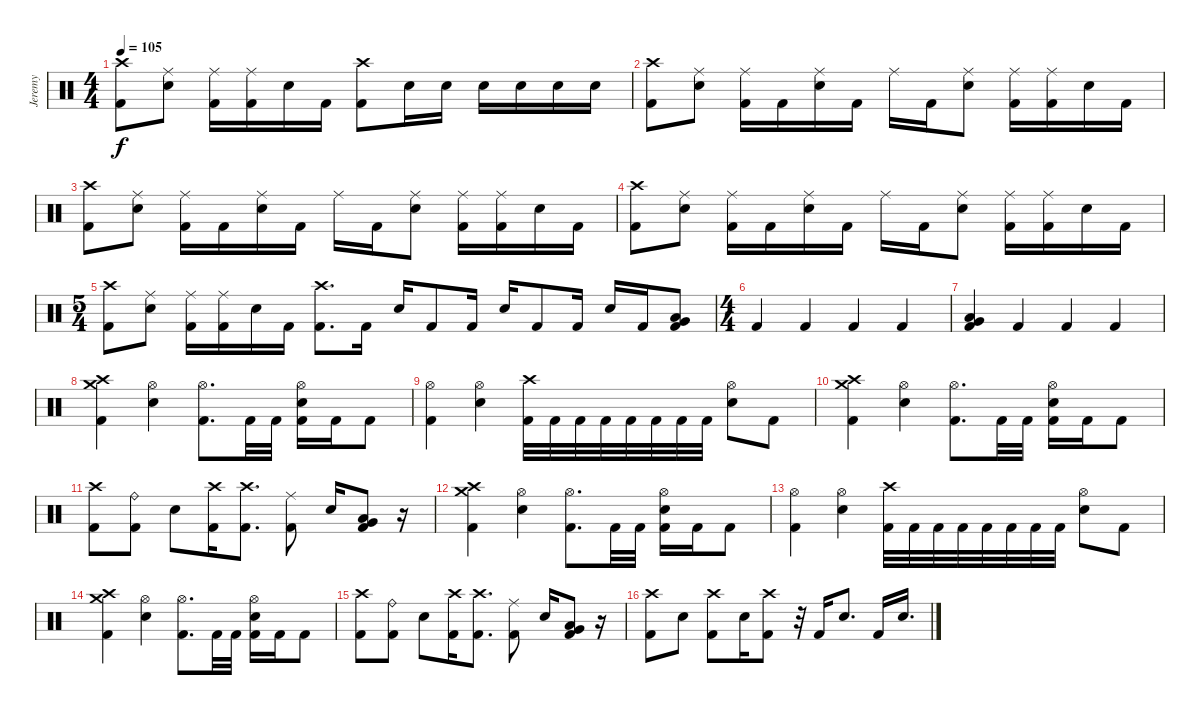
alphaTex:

\track ("Jeremy" "Jeremy") {instrument percussion}
\staff {score}
\articulation defaults
\ts (4 4)
\tempo 105
\clef neutral
\ks c
("Crash high (hit)" "Kick (hit) 2").8{dy f} ("Ride (middle)" "Snare (hit) 2").8 ("Ride (middle)" "Kick (hit) 2").16 ("Ride (middle)" "Kick (hit) 2").16 "Snare (hit) 2".16 "Kick (hit) 2".16 ("Crash high (hit)" "Kick (hit) 2").8 "Snare (hit) 2".16 "Snare (hit) 2".16 "Snare (hit) 2".16 "Snare (hit) 2".16 "Snare (hit) 2".16 "Snare (hit) 2".16 |
("Crash high (hit)" "Kick (hit) 2").8 ("Ride (middle)" "Snare (hit) 2").8 ("Ride (middle)" "Kick (hit) 2").16 "Kick (hit) 2".16 ("Ride (middle)" "Snare (hit) 2").16 "Kick (hit) 2".16 "Ride (middle)".16 "Kick (hit) 2".16 ("Ride (middle)" "Snare (hit) 2").8 ("Ride (middle)" "Kick (hit) 2").16 ("Ride (middle)" "Kick (hit) 2").16 "Snare (hit) 2".16 "Kick (hit) 2".16 |
("Crash high (hit)" "Kick (hit) 2").8 ("Ride (middle)" "Snare (hit) 2").8 ("Ride (middle)" "Kick (hit) 2").16 "Kick (hit) 2".16 ("Ride (middle)" "Snare (hit) 2").16 "Kick (hit) 2".16 "Ride (middle)".16 "Kick (hit) 2".16 ("Ride (middle)" "Snare (hit) 2").8 ("Ride (middle)" "Kick (hit) 2").16 ("Ride (middle)" "Kick (hit) 2").16 "Snare (hit) 2".16 "Kick (hit) 2".16 |
("Crash high (hit)" "Kick (hit) 2").8 ("Ride (middle)" "Snare (hit) 2").8 ("Ride (middle)" "Kick (hit) 2").16 "Kick (hit) 2".16 ("Ride (middle)" "Snare (hit) 2").16 "Kick (hit) 2".16 "Ride (middle)".16 "Kick (hit) 2".16 ("Ride (middle)" "Snare (hit) 2").8 ("Ride (middle)" "Kick (hit) 2").16 ("Ride (middle)" "Kick (hit) 2").16 "Snare (hit) 2".16 "Kick (hit) 2".16 |
\ts (5 4)
("Crash high (hit)" "Kick (hit) 2").8 ("Ride (middle)" "Snare (hit) 2").8 ("Ride (middle)" "Kick (hit) 2").16 ("Ride (middle)" "Kick (hit) 2").16 "Snare (hit) 2".16 "Kick (hit) 2".16 ("Crash high (hit)" "Kick (hit) 2").8{d} "Kick (hit) 2".16 "Snare (hit) 2".16 "Kick (hit) 2".8 "Kick (hit) 2".16 "Snare (hit) 2".16 "Kick (hit) 2".8 "Kick (hit) 2".16 "Snare (hit) 2".16 "Kick (hit) 2".16 ("Very Low Tom (hit)" "Low Floor Tom (hit)" "Kick (hit) 2").8 |
\ts (4 4)
"Kick (hit) 2".4 "Kick (hit) 2".4 "Kick (hit) 2".4 "Kick (hit) 2".4 |
("Low Floor Tom (hit)" "Very Low Tom (hit)" "Kick (hit) 2").4 "Kick (hit) 2".4 "Kick (hit) 2".4 "Kick (hit) 2".4 |
("Crash high (hit)" "Crash medium (hit)" "Kick (hit) 2").4 ("Hi-Hat (open)" "Snare (hit) 2").4 ("Hi-Hat (open)" "Kick (hit) 2").8{d} "Kick (hit) 2".32 "Kick (hit) 2".32 ("Hi-Hat (open)" "Snare (hit) 2" "Kick (hit) 2").16 "Kick (hit) 2".16 "Kick (hit) 2".8 |
("Hi-Hat (open)" "Kick (hit) 2").4 ("Hi-Hat (open)" "Snare (hit) 2").4 ("Crash high (hit)" "Kick (hit) 2").32 "Kick (hit) 2".32 "Kick (hit) 2".32 "Kick (hit) 2".32 "Kick (hit) 2".32 "Kick (hit) 2".32 "Kick (hit) 2".32 "Kick (hit) 2".32 ("Hi-Hat (open)" "Snare (hit) 2").8 "Kick (hit) 2".8 |
("Crash high (hit)" "Crash medium (hit)" "Kick (hit) 2").4 ("Hi-Hat (open)" "Snare (hit) 2").4 ("Hi-Hat (open)" "Kick (hit) 2").8{d} "Kick (hit) 2".32 "Kick (hit) 2".32 ("Hi-Hat (open)" "Snare (hit) 2" "Kick (hit) 2").16 "Kick (hit) 2".16 "Kick (hit) 2".8 |
("Crash high (hit)" "Kick (hit) 2").8 ("Ride (bell)" "Kick (hit) 2").8 "Snare (hit) 2".8 ("Crash high (hit)" "Kick (hit) 2").16 ("Crash high (hit)" "Kick (hit) 2").8{d} ("Ride (middle)" "Kick (hit) 2").8 "Snare (hit) 2".16 ("Very Low Tom (hit)" "Low Tom (hit)" "Kick (hit) 2").8 r.16 |
("Crash high (hit)" "Crash medium (hit)" "Kick (hit) 2").4 ("Hi-Hat (open)" "Snare (hit) 2").4 ("Hi-Hat (open)" "Kick (hit) 2").8{d} "Kick (hit) 2".32 "Kick (hit) 2".32 ("Hi-Hat (open)" "Snare (hit) 2" "Kick (hit) 2").16 "Kick (hit) 2".16 "Kick (hit) 2".8 |
("Hi-Hat (open)" "Kick (hit) 2").4 ("Hi-Hat (open)" "Snare (hit) 2").4 ("Crash high (hit)" "Kick (hit) 2").32 "Kick (hit) 2".32 "Kick (hit) 2".32 "Kick (hit) 2".32 "Kick (hit) 2".32 "Kick (hit) 2".32 "Kick (hit) 2".32 "Kick (hit) 2".32 ("Hi-Hat (open)" "Snare (hit) 2").8 "Kick (hit) 2".8 |
("Crash high (hit)" "Crash medium (hit)" "Kick (hit) 2").4 ("Hi-Hat (open)" "Snare (hit) 2").4 ("Hi-Hat (open)" "Kick (hit) 2").8{d} "Kick (hit) 2".32 "Kick (hit) 2".32 ("Hi-Hat (open)" "Snare (hit) 2" "Kick (hit) 2").16 "Kick (hit) 2".16 "Kick (hit) 2".8 |
("Crash high (hit)" "Kick (hit) 2").8 ("Ride (bell)" "Kick (hit) 2").8 "Snare (hit) 2".8 ("Crash high (hit)" "Kick (hit) 2").16 ("Crash high (hit)" "Kick (hit) 2").8{d} ("Ride (middle)" "Kick (hit) 2").8 "Snare (hit) 2".16 ("Low Tom (hit)" "Very Low Tom (hit)" "Kick (hit) 2").8 r.16 |
("Crash high (hit)" "Kick (hit) 2").8 "Snare (hit) 2".8 ("Crash high (hit)" "Kick (hit) 2").8 "Snare (hit) 2".16 ("Crash high (hit)" "Kick (hit) 2").8 r.32 "Kick (hit) 2".16 "Snare (hit) 2".8{d} "Kick (hit) 2".16 "Snare (hit) 2".16{d}
